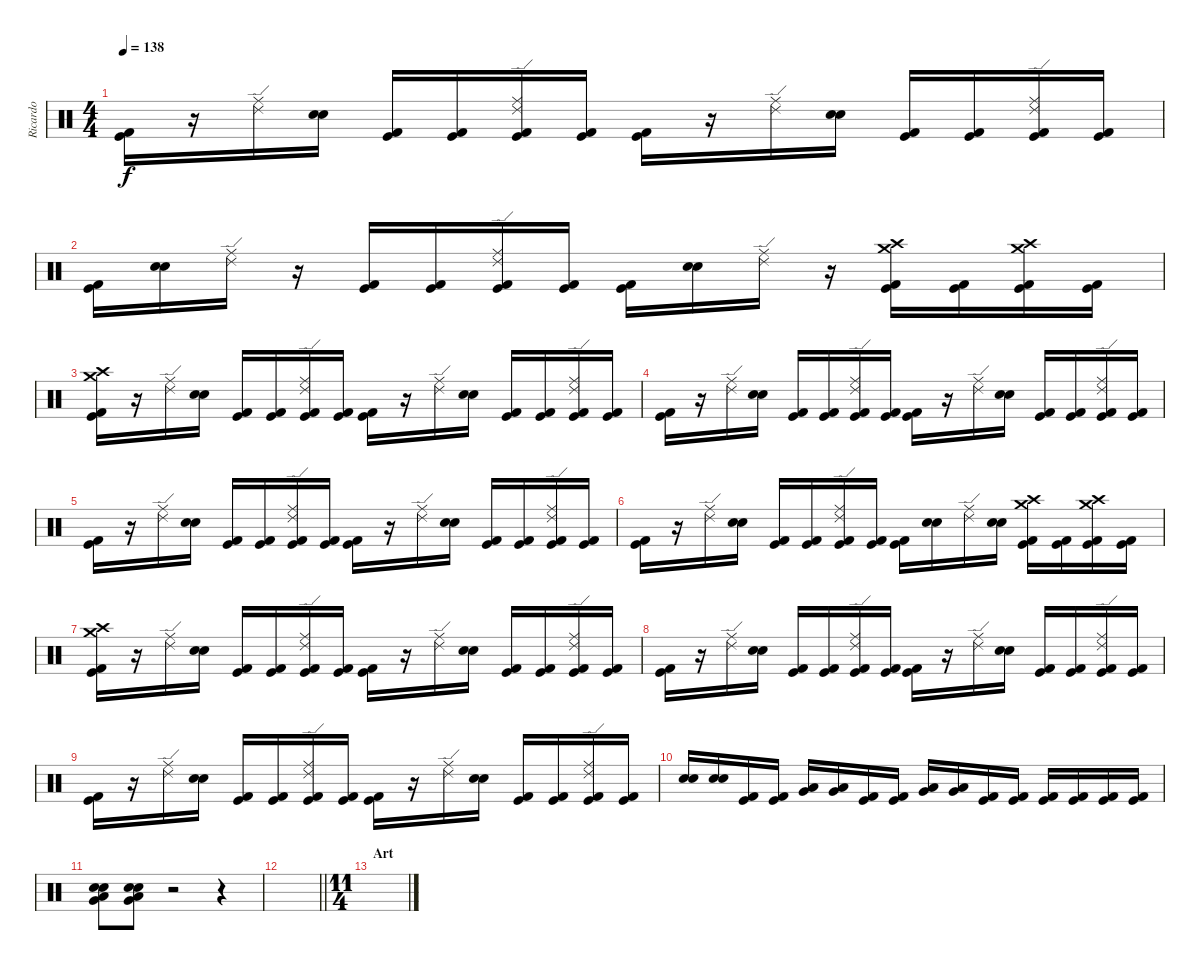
\track ("Ricardo" "Ricardo") {instrument percussion}
\staff {score}
\articulation defaults
\ts (4 4)
\tempo 138
\clef neutral
\ks c
("Kick (hit) 2" "Kick (hit)").16{dy f} r.16 ("Ride (middle)" "Ride (edge) 2").16 ("Electric Snare (hit)" "Snare (hit) 2").16 ("Kick (hit) 2" "Kick (hit)").16 ("Kick (hit) 2" "Kick (hit)").16 ("Ride (middle)" "Ride (edge) 2" "Kick (hit) 2" "Kick (hit)").16 ("Kick (hit) 2" "Kick (hit)").16 ("Kick (hit) 2" "Kick (hit)").16 r.16 ("Ride (middle)" "Ride (edge) 2").16 ("Electric Snare (hit)" "Snare (hit) 2").16 ("Kick (hit) 2" "Kick (hit)").16 ("Kick (hit) 2" "Kick (hit)").16 ("Ride (middle)" "Ride (edge) 2" "Kick (hit) 2" "Kick (hit)").16 ("Kick (hit) 2" "Kick (hit)").16 |
("Kick (hit) 2" "Kick (hit)").16 ("Electric Snare (hit)" "Snare (hit) 2").16 ("Ride (middle)" "Ride (edge) 2").16 r.16 ("Kick (hit) 2" "Kick (hit)").16 ("Kick (hit) 2" "Kick (hit)").16 ("Ride (middle)" "Ride (edge) 2" "Kick (hit) 2" "Kick (hit)").16 ("Kick (hit) 2" "Kick (hit)").16 ("Kick (hit) 2" "Kick (hit)").16 ("Electric Snare (hit)" "Snare (hit) 2").16 ("Ride (middle)" "Ride (edge) 2").16 r.16 ("Crash medium (hit)" "Crash high (hit)" "Kick (hit) 2" "Kick (hit)").16 ("Kick (hit) 2" "Kick (hit)").16 ("Crash medium (hit)" "Crash high (hit)" "Kick (hit) 2" "Kick (hit)").16 ("Kick (hit) 2" "Kick (hit)").16 |
("Crash high (hit)" "Crash medium (hit)" "Kick (hit) 2" "Kick (hit)").16 r.16 ("Ride (middle)" "Ride (edge) 2").16 ("Electric Snare (hit)" "Snare (hit) 2").16 ("Kick (hit) 2" "Kick (hit)").16 ("Kick (hit) 2" "Kick (hit)").16 ("Ride (middle)" "Ride (edge) 2" "Kick (hit) 2" "Kick (hit)").16 ("Kick (hit) 2" "Kick (hit)").16 ("Kick (hit) 2" "Kick (hit)").16 r.16 ("Ride (middle)" "Ride (edge) 2").16 ("Electric Snare (hit)" "Snare (hit) 2").16 ("Kick (hit) 2" "Kick (hit)").16 ("Kick (hit) 2" "Kick (hit)").16 ("Ride (middle)" "Ride (edge) 2" "Kick (hit) 2" "Kick (hit)").16 ("Kick (hit) 2" "Kick (hit)").16 |
("Kick (hit) 2" "Kick (hit)").16 r.16 ("Ride (middle)" "Ride (edge) 2").16 ("Electric Snare (hit)" "Snare (hit) 2").16 ("Kick (hit) 2" "Kick (hit)").16 ("Kick (hit) 2" "Kick (hit)").16 ("Ride (middle)" "Ride (edge) 2" "Kick (hit) 2" "Kick (hit)").16 ("Kick (hit) 2" "Kick (hit)").16 ("Kick (hit) 2" "Kick (hit)").16 r.16 ("Ride (middle)" "Ride (edge) 2").16 ("Electric Snare (hit)" "Snare (hit) 2").16 ("Kick (hit) 2" "Kick (hit)").16 ("Kick (hit) 2" "Kick (hit)").16 ("Ride (middle)" "Ride (edge) 2" "Kick (hit) 2" "Kick (hit)").16 ("Kick (hit) 2" "Kick (hit)").16 |
("Kick (hit) 2" "Kick (hit)").16 r.16 ("Ride (middle)" "Ride (edge) 2").16 ("Electric Snare (hit)" "Snare (hit) 2").16 ("Kick (hit) 2" "Kick (hit)").16 ("Kick (hit) 2" "Kick (hit)").16 ("Ride (middle)" "Ride (edge) 2" "Kick (hit) 2" "Kick (hit)").16 ("Kick (hit) 2" "Kick (hit)").16 ("Kick (hit) 2" "Kick (hit)").16 r.16 ("Ride (middle)" "Ride (edge) 2").16 ("Electric Snare (hit)" "Snare (hit) 2").16 ("Kick (hit) 2" "Kick (hit)").16 ("Kick (hit) 2" "Kick (hit)").16 ("Ride (middle)" "Ride (edge) 2" "Kick (hit) 2" "Kick (hit)").16 ("Kick (hit) 2" "Kick (hit)").16 |
("Kick (hit) 2" "Kick (hit)").16 r.16 ("Ride (middle)" "Ride (edge) 2").16 ("Electric Snare (hit)" "Snare (hit) 2").16 ("Kick (hit) 2" "Kick (hit)").16 ("Kick (hit) 2" "Kick (hit)").16 ("Ride (middle)" "Ride (edge) 2" "Kick (hit) 2" "Kick (hit)").16 ("Kick (hit) 2" "Kick (hit)").16 ("Kick (hit) 2" "Kick (hit)").16 ("Electric Snare (hit)" "Snare (hit) 2").16 ("Ride (middle)" "Ride (edge) 2").16 ("Electric Snare (hit)" "Snare (hit) 2").16 ("Crash high (hit)" "Crash medium (hit)" "Kick (hit) 2" "Kick (hit)").16 ("Kick (hit) 2" "Kick (hit)").16 ("Crash medium (hit)" "Crash high (hit)" "Kick (hit) 2" "Kick (hit)").16 ("Kick (hit) 2" "Kick (hit)").16 |
("Crash high (hit)" "Crash medium (hit)" "Kick (hit) 2" "Kick (hit)").16 r.16 ("Ride (middle)" "Ride (edge) 2").16 ("Electric Snare (hit)" "Snare (hit) 2").16 ("Kick (hit) 2" "Kick (hit)").16 ("Kick (hit) 2" "Kick (hit)").16 ("Ride (middle)" "Ride (edge) 2" "Kick (hit) 2" "Kick (hit)").16 ("Kick (hit) 2" "Kick (hit)").16 ("Kick (hit) 2" "Kick (hit)").16 r.16 ("Ride (middle)" "Ride (edge) 2").16 ("Electric Snare (hit)" "Snare (hit) 2").16 ("Kick (hit) 2" "Kick (hit)").16 ("Kick (hit) 2" "Kick (hit)").16 ("Ride (middle)" "Ride (edge) 2" "Kick (hit) 2" "Kick (hit)").16 ("Kick (hit) 2" "Kick (hit)").16 |
("Kick (hit) 2" "Kick (hit)").16 r.16 ("Ride (middle)" "Ride (edge) 2").16 ("Electric Snare (hit)" "Snare (hit) 2").16 ("Kick (hit) 2" "Kick (hit)").16 ("Kick (hit) 2" "Kick (hit)").16 ("Ride (middle)" "Ride (edge) 2" "Kick (hit) 2" "Kick (hit)").16 ("Kick (hit) 2" "Kick (hit)").16 ("Kick (hit) 2" "Kick (hit)").16 r.16 ("Ride (middle)" "Ride (edge) 2").16 ("Electric Snare (hit)" "Snare (hit) 2").16 ("Kick (hit) 2" "Kick (hit)").16 ("Kick (hit) 2" "Kick (hit)").16 ("Ride (middle)" "Ride (edge) 2" "Kick (hit) 2" "Kick (hit)").16 ("Kick (hit) 2" "Kick (hit)").16 |
("Kick (hit) 2" "Kick (hit)").16 r.16 ("Ride (middle)" "Ride (edge) 2").16 ("Electric Snare (hit)" "Snare (hit) 2").16 ("Kick (hit) 2" "Kick (hit)").16 ("Kick (hit) 2" "Kick (hit)").16 ("Ride (middle)" "Ride (edge) 2" "Kick (hit) 2" "Kick (hit)").16 ("Kick (hit) 2" "Kick (hit)").16 ("Kick (hit) 2" "Kick (hit)").16 r.16 ("Ride (middle)" "Ride (edge) 2").16 ("Electric Snare (hit)" "Snare (hit) 2").16 ("Kick (hit) 2" "Kick (hit)").16 ("Kick (hit) 2" "Kick (hit)").16 ("Ride (middle)" "Ride (edge) 2" "Kick (hit) 2" "Kick (hit)").16 ("Kick (hit) 2" "Kick (hit)").16 |
("Electric Snare (hit)" "Snare (hit) 2").16 ("Electric Snare (hit)" "Snare (hit) 2").16 ("Kick (hit) 2" "Kick (hit)").16 ("Kick (hit) 2" "Kick (hit)").16 ("Very Low Tom (hit)" "Low Tom (hit)").16 ("Very Low Tom (hit)" "Low Tom (hit)").16 ("Kick (hit) 2" "Kick (hit)").16 ("Kick (hit) 2" "Kick (hit)").16 ("Very Low Tom (hit)" "Low Floor Tom (hit)").16 ("Low Floor Tom (hit)" "Very Low Tom (hit)").16 ("Kick (hit) 2" "Kick (hit)").16 ("Kick (hit) 2" "Kick (hit)").16 ("Kick (hit) 2" "Kick (hit)").16 ("Kick (hit) 2" "Kick (hit)").16 ("Kick (hit) 2" "Kick (hit)").16 ("Kick (hit) 2" "Kick (hit)").16 |
("Low Tom (hit)" "Very Low Tom (hit)" "Electric Snare (hit)" "Snare (hit) 2").8 ("Low Tom (hit)" "Very Low Tom (hit)" "Electric Snare (hit)" "Snare (hit) 2").8 r.2 r.4 |
\barLineRight lightlight
|
\ts (11 4)
\section ("" "Art")
